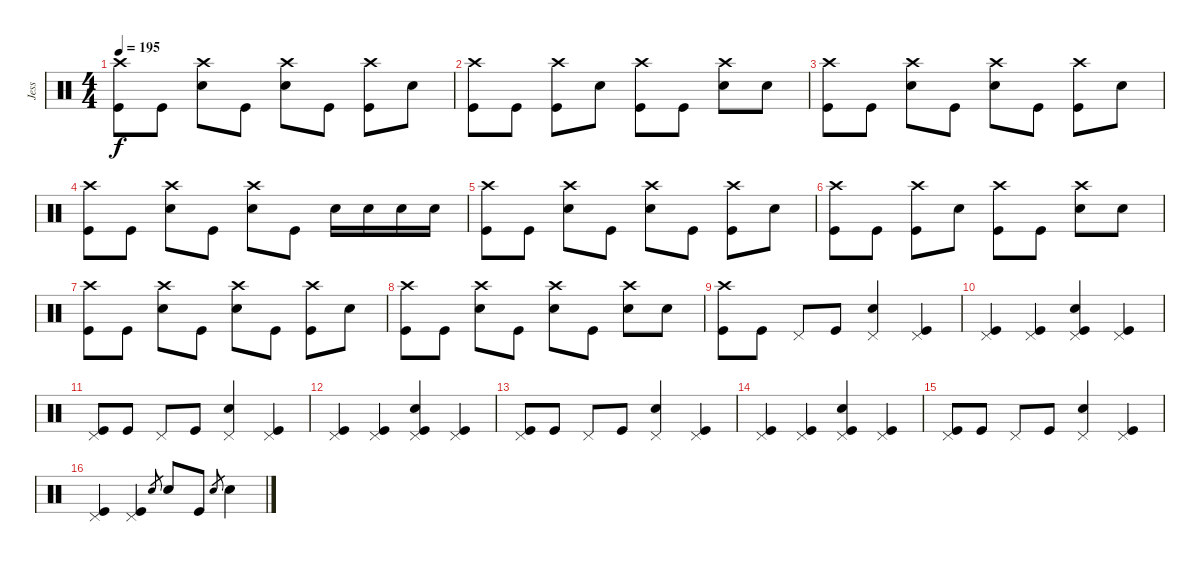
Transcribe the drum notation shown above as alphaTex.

\track ("Jess" "Jess") {instrument percussion}
\staff {score}
\articulation defaults
\ts (4 4)
\tempo 195
\clef neutral
\ks c
("Crash high (hit)" "Kick (hit)").8{dy f} "Kick (hit)".8 ("Crash high (hit)" "Electric Snare (hit)").8 "Kick (hit)".8 ("Crash high (hit)" "Electric Snare (hit)").8 "Kick (hit)".8 ("Crash high (hit)" "Kick (hit)").8 "Electric Snare (hit)".8 |
("Crash high (hit)" "Kick (hit)").8 "Kick (hit)".8 ("Crash high (hit)" "Kick (hit)").8 "Electric Snare (hit)".8 ("Crash high (hit)" "Kick (hit)").8 "Kick (hit)".8 ("Crash high (hit)" "Electric Snare (hit)").8 "Electric Snare (hit)".8 |
("Crash high (hit)" "Kick (hit)").8 "Kick (hit)".8 ("Crash high (hit)" "Electric Snare (hit)").8 "Kick (hit)".8 ("Crash high (hit)" "Electric Snare (hit)").8 "Kick (hit)".8 ("Crash high (hit)" "Kick (hit)").8 "Electric Snare (hit)".8 |
("Crash high (hit)" "Kick (hit)").8 "Kick (hit)".8 ("Crash high (hit)" "Electric Snare (hit)").8 "Kick (hit)".8 ("Crash high (hit)" "Electric Snare (hit)").8 "Kick (hit)".8 "Electric Snare (hit)".16 "Electric Snare (hit)".16 "Electric Snare (hit)".16 "Electric Snare (hit)".16 |
("Crash high (hit)" "Kick (hit)").8 "Kick (hit)".8 ("Crash high (hit)" "Electric Snare (hit)").8 "Kick (hit)".8 ("Crash high (hit)" "Electric Snare (hit)").8 "Kick (hit)".8 ("Crash high (hit)" "Kick (hit)").8 "Electric Snare (hit)".8 |
("Crash high (hit)" "Kick (hit)").8 "Kick (hit)".8 ("Crash high (hit)" "Kick (hit)").8 "Electric Snare (hit)".8 ("Crash high (hit)" "Kick (hit)").8 "Kick (hit)".8 ("Crash high (hit)" "Electric Snare (hit)").8 "Electric Snare (hit)".8 |
("Crash high (hit)" "Kick (hit)").8 "Kick (hit)".8 ("Crash high (hit)" "Electric Snare (hit)").8 "Kick (hit)".8 ("Crash high (hit)" "Electric Snare (hit)").8 "Kick (hit)".8 ("Crash high (hit)" "Kick (hit)").8 "Electric Snare (hit)".8 |
("Crash high (hit)" "Kick (hit)").8 "Kick (hit)".8 ("Crash high (hit)" "Electric Snare (hit)").8 "Kick (hit)".8 ("Crash high (hit)" "Electric Snare (hit)").8 "Kick (hit)".8 ("Crash high (hit)" "Electric Snare (hit)").8 "Electric Snare (hit)".8 |
("Crash high (hit)" "Kick (hit)").8 "Kick (hit)".8 "Pedal Hi-Hat (hit)".8 "Kick (hit)".8 ("Pedal Hi-Hat (hit)" "Electric Snare (hit)").4 ("Pedal Hi-Hat (hit)" "Kick (hit)").4 |
("Pedal Hi-Hat (hit)" "Kick (hit)").4 ("Pedal Hi-Hat (hit)" "Kick (hit)").4 ("Pedal Hi-Hat (hit)" "Electric Snare (hit)" "Kick (hit)").4 ("Pedal Hi-Hat (hit)" "Kick (hit)").4 |
("Pedal Hi-Hat (hit)" "Kick (hit)").8 "Kick (hit)".8 "Pedal Hi-Hat (hit)".8 "Kick (hit)".8 ("Pedal Hi-Hat (hit)" "Electric Snare (hit)").4 ("Pedal Hi-Hat (hit)" "Kick (hit)").4 |
("Pedal Hi-Hat (hit)" "Kick (hit)").4 ("Pedal Hi-Hat (hit)" "Kick (hit)").4 ("Pedal Hi-Hat (hit)" "Electric Snare (hit)" "Kick (hit)").4 ("Pedal Hi-Hat (hit)" "Kick (hit)").4 |
("Pedal Hi-Hat (hit)" "Kick (hit)").8 "Kick (hit)".8 "Pedal Hi-Hat (hit)".8 "Kick (hit)".8 ("Pedal Hi-Hat (hit)" "Electric Snare (hit)").4 ("Pedal Hi-Hat (hit)" "Kick (hit)").4 |
("Pedal Hi-Hat (hit)" "Kick (hit)").4 ("Pedal Hi-Hat (hit)" "Kick (hit)").4 ("Pedal Hi-Hat (hit)" "Electric Snare (hit)" "Kick (hit)").4 ("Pedal Hi-Hat (hit)" "Kick (hit)").4 |
("Pedal Hi-Hat (hit)" "Kick (hit)").8 "Kick (hit)".8 "Pedal Hi-Hat (hit)".8 "Kick (hit)".8 ("Pedal Hi-Hat (hit)" "Electric Snare (hit)").4 ("Pedal Hi-Hat (hit)" "Kick (hit)").4 |
("Pedal Hi-Hat (hit)" "Kick (hit)").4 ("Pedal Hi-Hat (hit)" "Kick (hit)").4 "Electric Snare (hit)".8{gr} "Electric Snare (hit)".8 "Kick (hit)".8 "Electric Snare (hit)".8{gr} "Electric Snare (hit)".4
